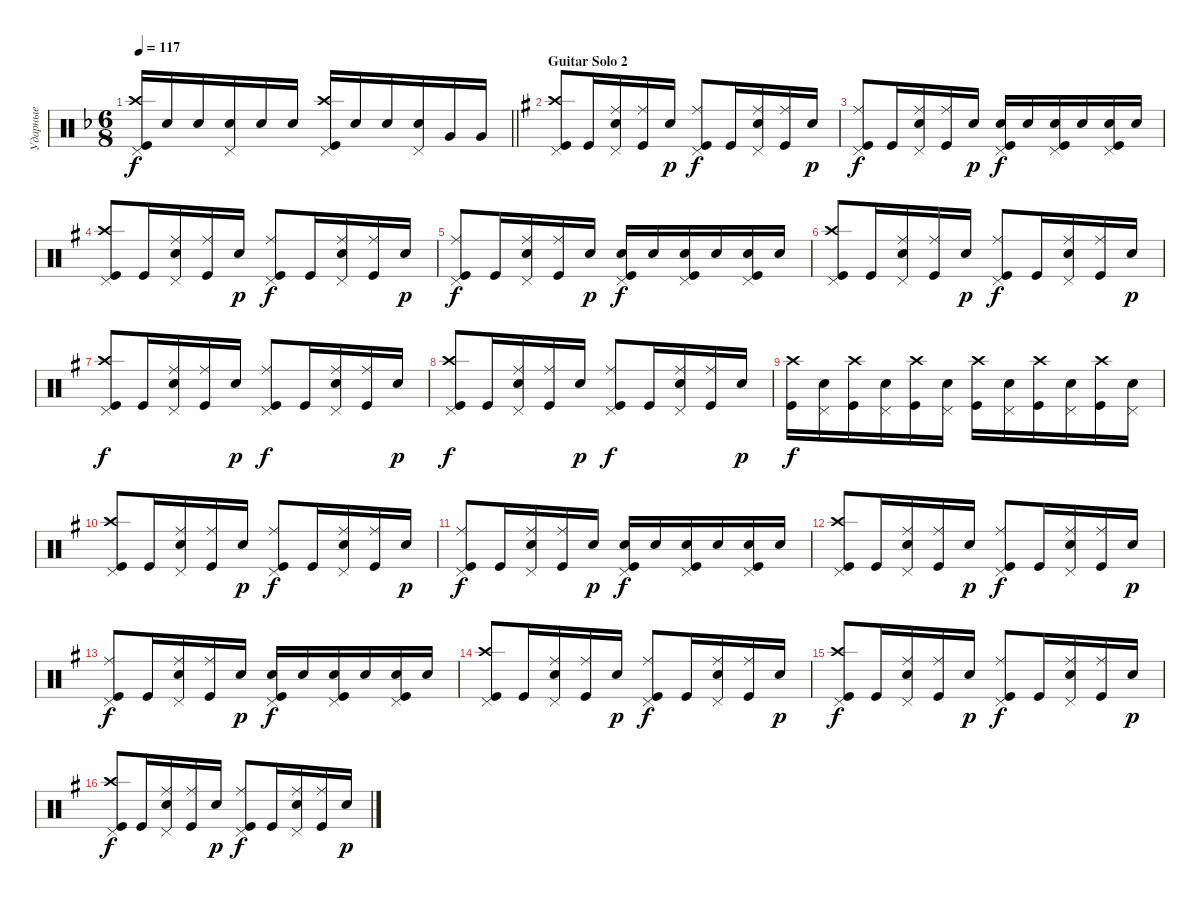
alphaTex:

\track ("Ударные" "Ударные") {instrument percussion}
\staff {score}
\articulation defaults
\ts (6 8)
\tempo 117
\clef neutral
\barLineRight lightlight
\ks dminor
("Kick (hit)" "Crash high (hit)" "Pedal Hi-Hat (hit)").16{dy f} "Snare (hit) 2".16 "Snare (hit) 2".16 ("Snare (hit) 2" "Pedal Hi-Hat (hit)").16 "Snare (hit) 2".16 "Snare (hit) 2".16 ("Crash high (hit)" "Kick (hit)" "Pedal Hi-Hat (hit)").16 "Snare (hit) 2".16 "Snare (hit) 2".16 ("Snare (hit) 2" "Pedal Hi-Hat (hit)").16 "Very Low Tom (hit)".16 "Very Low Tom (hit)".16 |
\section ("" "Guitar Solo 2")
\ks eminor
("Kick (hit)" "Crash high (hit)" "Pedal Hi-Hat (hit)").8 "Kick (hit)".16 ("Snare (hit) 2" "Ride (middle)" "Pedal Hi-Hat (hit)").16 ("Kick (hit)" "Ride (middle)").16 "Snare (hit) 2".16{dy p} ("Kick (hit)" "Ride (middle)" "Pedal Hi-Hat (hit)").8{dy f} "Kick (hit)".16 ("Snare (hit) 2" "Ride (middle)" "Pedal Hi-Hat (hit)").16 ("Kick (hit)" "Ride (middle)").16 "Snare (hit) 2".16{dy p} |
("Kick (hit)" "Ride (middle)" "Pedal Hi-Hat (hit)").8{dy f} "Kick (hit)".16 ("Snare (hit) 2" "Ride (middle)" "Pedal Hi-Hat (hit)").16 ("Kick (hit)" "Ride (middle)").16 "Snare (hit) 2".16{dy p} ("Kick (hit)" "Snare (hit) 2" "Pedal Hi-Hat (hit)").16{dy f} "Snare (hit) 2".16 ("Kick (hit)" "Snare (hit) 2" "Pedal Hi-Hat (hit)").16 "Snare (hit) 2".16 ("Kick (hit)" "Snare (hit) 2" "Pedal Hi-Hat (hit)").16 "Snare (hit) 2".16 |
("Kick (hit)" "Crash high (hit)" "Pedal Hi-Hat (hit)").8 "Kick (hit)".16 ("Snare (hit) 2" "Ride (middle)" "Pedal Hi-Hat (hit)").16 ("Kick (hit)" "Ride (middle)").16 "Snare (hit) 2".16{dy p} ("Kick (hit)" "Ride (middle)" "Pedal Hi-Hat (hit)").8{dy f} "Kick (hit)".16 ("Snare (hit) 2" "Ride (middle)" "Pedal Hi-Hat (hit)").16 ("Kick (hit)" "Ride (middle)").16 "Snare (hit) 2".16{dy p} |
("Kick (hit)" "Ride (middle)" "Pedal Hi-Hat (hit)").8{dy f} "Kick (hit)".16 ("Snare (hit) 2" "Ride (middle)" "Pedal Hi-Hat (hit)").16 ("Kick (hit)" "Ride (middle)").16 "Snare (hit) 2".16{dy p} ("Kick (hit)" "Snare (hit) 2" "Pedal Hi-Hat (hit)").16{dy f} "Snare (hit) 2".16 ("Kick (hit)" "Snare (hit) 2" "Pedal Hi-Hat (hit)").16 "Snare (hit) 2".16 ("Kick (hit)" "Snare (hit) 2" "Pedal Hi-Hat (hit)").16 "Snare (hit) 2".16 |
("Kick (hit)" "Crash high (hit)" "Pedal Hi-Hat (hit)").8 "Kick (hit)".16 ("Snare (hit) 2" "Ride (middle)" "Pedal Hi-Hat (hit)").16 ("Kick (hit)" "Ride (middle)").16 "Snare (hit) 2".16{dy p} ("Kick (hit)" "Ride (middle)" "Pedal Hi-Hat (hit)").8{dy f} "Kick (hit)".16 ("Snare (hit) 2" "Ride (middle)" "Pedal Hi-Hat (hit)").16 ("Kick (hit)" "Ride (middle)").16 "Snare (hit) 2".16{dy p} |
("Kick (hit)" "Crash high (hit)" "Pedal Hi-Hat (hit)").8{dy f} "Kick (hit)".16 ("Snare (hit) 2" "Ride (middle)" "Pedal Hi-Hat (hit)").16 ("Kick (hit)" "Ride (middle)").16 "Snare (hit) 2".16{dy p} ("Kick (hit)" "Ride (middle)" "Pedal Hi-Hat (hit)").8{dy f} "Kick (hit)".16 ("Snare (hit) 2" "Ride (middle)" "Pedal Hi-Hat (hit)").16 ("Kick (hit)" "Ride (middle)").16 "Snare (hit) 2".16{dy p} |
("Kick (hit)" "Crash high (hit)" "Pedal Hi-Hat (hit)").8{dy f} "Kick (hit)".16 ("Snare (hit) 2" "Ride (middle)" "Pedal Hi-Hat (hit)").16 ("Kick (hit)" "Ride (middle)").16 "Snare (hit) 2".16{dy p} ("Kick (hit)" "Ride (middle)" "Pedal Hi-Hat (hit)").8{dy f} "Kick (hit)".16 ("Snare (hit) 2" "Ride (middle)" "Pedal Hi-Hat (hit)").16 ("Kick (hit)" "Ride (middle)").16 "Snare (hit) 2".16{dy p} |
("Kick (hit)" "Crash high (hit)").16{dy f} ("Pedal Hi-Hat (hit)" "Snare (hit) 2").16 ("Kick (hit)" "Crash high (hit)").16 ("Snare (hit) 2" "Pedal Hi-Hat (hit)").16 ("Kick (hit)" "Crash high (hit)").16 ("Snare (hit) 2" "Pedal Hi-Hat (hit)").16 ("Kick (hit)" "Crash high (hit)").16 ("Snare (hit) 2" "Pedal Hi-Hat (hit)").16 ("Kick (hit)" "Crash high (hit)").16 ("Snare (hit) 2" "Pedal Hi-Hat (hit)").16 ("Kick (hit)" "Crash high (hit)").16 ("Snare (hit) 2" "Pedal Hi-Hat (hit)").16 |
("Kick (hit)" "Crash high (hit)" "Pedal Hi-Hat (hit)").8 "Kick (hit)".16 ("Snare (hit) 2" "Ride (middle)" "Pedal Hi-Hat (hit)").16 ("Kick (hit)" "Ride (middle)").16 "Snare (hit) 2".16{dy p} ("Kick (hit)" "Ride (middle)" "Pedal Hi-Hat (hit)").8{dy f} "Kick (hit)".16 ("Snare (hit) 2" "Ride (middle)" "Pedal Hi-Hat (hit)").16 ("Kick (hit)" "Ride (middle)").16 "Snare (hit) 2".16{dy p} |
("Kick (hit)" "Ride (middle)" "Pedal Hi-Hat (hit)").8{dy f} "Kick (hit)".16 ("Snare (hit) 2" "Ride (middle)" "Pedal Hi-Hat (hit)").16 ("Kick (hit)" "Ride (middle)").16 "Snare (hit) 2".16{dy p} ("Kick (hit)" "Snare (hit) 2" "Pedal Hi-Hat (hit)").16{dy f} "Snare (hit) 2".16 ("Kick (hit)" "Snare (hit) 2" "Pedal Hi-Hat (hit)").16 "Snare (hit) 2".16 ("Kick (hit)" "Snare (hit) 2" "Pedal Hi-Hat (hit)").16 "Snare (hit) 2".16 |
("Kick (hit)" "Crash high (hit)" "Pedal Hi-Hat (hit)").8 "Kick (hit)".16 ("Snare (hit) 2" "Ride (middle)" "Pedal Hi-Hat (hit)").16 ("Kick (hit)" "Ride (middle)").16 "Snare (hit) 2".16{dy p} ("Kick (hit)" "Ride (middle)" "Pedal Hi-Hat (hit)").8{dy f} "Kick (hit)".16 ("Snare (hit) 2" "Ride (middle)" "Pedal Hi-Hat (hit)").16 ("Kick (hit)" "Ride (middle)").16 "Snare (hit) 2".16{dy p} |
("Kick (hit)" "Ride (middle)" "Pedal Hi-Hat (hit)").8{dy f} "Kick (hit)".16 ("Snare (hit) 2" "Ride (middle)" "Pedal Hi-Hat (hit)").16 ("Kick (hit)" "Ride (middle)").16 "Snare (hit) 2".16{dy p} ("Kick (hit)" "Snare (hit) 2" "Pedal Hi-Hat (hit)").16{dy f} "Snare (hit) 2".16 ("Kick (hit)" "Snare (hit) 2" "Pedal Hi-Hat (hit)").16 "Snare (hit) 2".16 ("Kick (hit)" "Snare (hit) 2" "Pedal Hi-Hat (hit)").16 "Snare (hit) 2".16 |
("Kick (hit)" "Crash high (hit)" "Pedal Hi-Hat (hit)").8 "Kick (hit)".16 ("Snare (hit) 2" "Ride (middle)" "Pedal Hi-Hat (hit)").16 ("Kick (hit)" "Ride (middle)").16 "Snare (hit) 2".16{dy p} ("Kick (hit)" "Ride (middle)" "Pedal Hi-Hat (hit)").8{dy f} "Kick (hit)".16 ("Snare (hit) 2" "Ride (middle)" "Pedal Hi-Hat (hit)").16 ("Kick (hit)" "Ride (middle)").16 "Snare (hit) 2".16{dy p} |
("Kick (hit)" "Crash high (hit)" "Pedal Hi-Hat (hit)").8{dy f} "Kick (hit)".16 ("Snare (hit) 2" "Ride (middle)" "Pedal Hi-Hat (hit)").16 ("Kick (hit)" "Ride (middle)").16 "Snare (hit) 2".16{dy p} ("Kick (hit)" "Ride (middle)" "Pedal Hi-Hat (hit)").8{dy f} "Kick (hit)".16 ("Snare (hit) 2" "Ride (middle)" "Pedal Hi-Hat (hit)").16 ("Kick (hit)" "Ride (middle)").16 "Snare (hit) 2".16{dy p} |
("Kick (hit)" "Crash high (hit)" "Pedal Hi-Hat (hit)").8{dy f} "Kick (hit)".16 ("Snare (hit) 2" "Ride (middle)" "Pedal Hi-Hat (hit)").16 ("Kick (hit)" "Ride (middle)").16 "Snare (hit) 2".16{dy p} ("Kick (hit)" "Ride (middle)" "Pedal Hi-Hat (hit)").8{dy f} "Kick (hit)".16 ("Snare (hit) 2" "Ride (middle)" "Pedal Hi-Hat (hit)").16 ("Kick (hit)" "Ride (middle)").16 "Snare (hit) 2".16{dy p}
